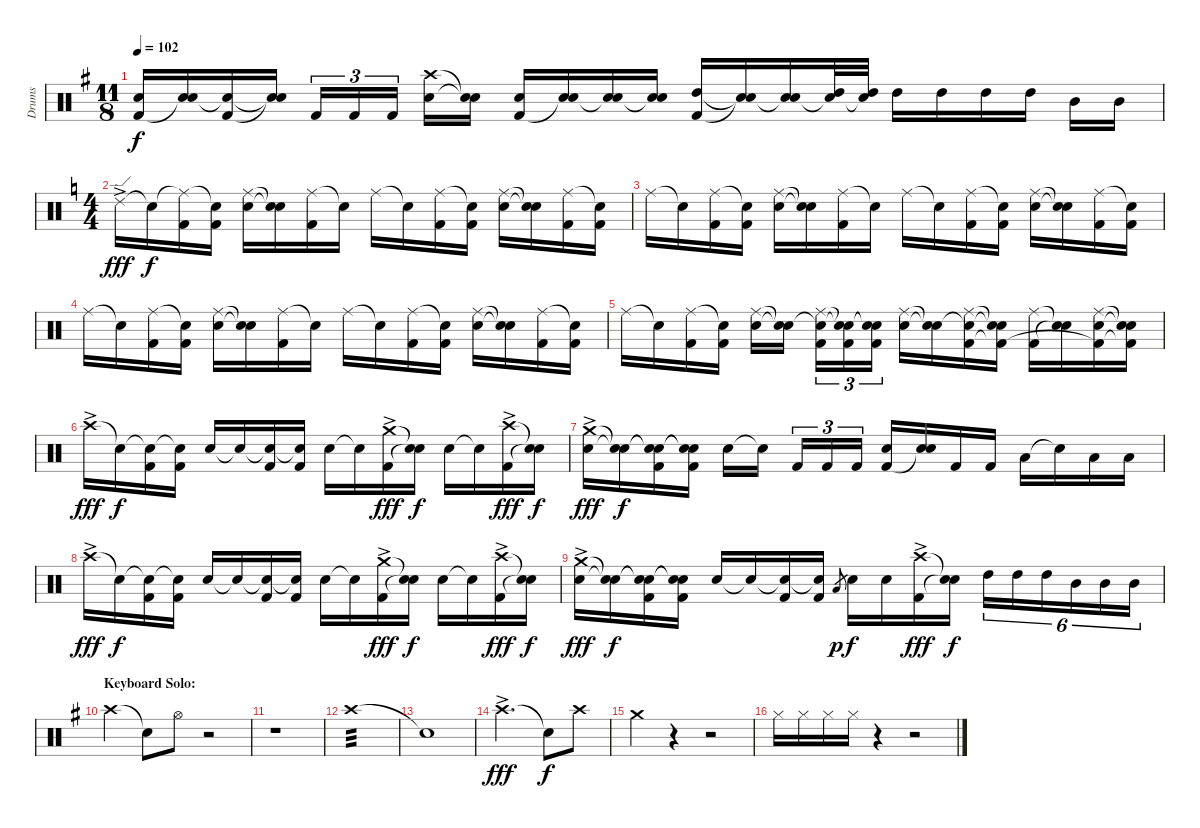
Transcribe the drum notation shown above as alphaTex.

\track ("Drums" "Drums") {instrument percussion}
\staff {score}
\articulation defaults
\ts (11 8)
\tempo 102
\clef neutral
\ks eminor
("Snare (hit) 2" "Kick (hit) 2").16{dy f} ("Snare (hit) 2" "Snare (hit)"{t}).16 ("Snare (hit)"{t} "Kick (hit) 2").16 ("Snare (hit)"{t} "Snare (hit)"{t}).16 "Kick (hit) 2".16{tu (3 2)} "Kick (hit) 2".16{tu (3 2)} "Kick (hit) 2".16{tu (3 2)} ("Crash high (hit)" "Snare (hit) 2").16 ("Snare (hit)"{t} "Snare (hit)"{t}).16 ("Snare (hit) 2" "Kick (hit) 2").16 ("Snare (hit) 2" "Snare (hit)"{t}).16 ("Snare (hit) 2" "Snare (hit)"{t}).16 ("Snare (hit) 2" "Snare (hit)"{t}).16 ("High Tom (hit)" "Kick (hit) 2").16 ("Snare (hit)"{t} "Snare (hit)"{t}).16 ("Snare (hit) 2" "Snare (hit)"{t}).16 ("High Tom (hit)" "Snare (hit)"{t}).32 ("High Tom (hit)" "Snare (hit)"{t}).32 "High Tom (hit)".16 "High Tom (hit)".16 "High Tom (hit)".16 "High Tom (hit)".16 "Mid Tom (hit)".16 "Mid Tom (hit)".16 |
\ts (4 4)
\ks c "Ride (edge) 2"{ac}.16{dy fff} "Snare (hit)"{t}.16{dy f}
("Ride (middle)"{t} "Kick (hit) 2").16 ("Snare (hit)"{t} "Kick (hit) 2").16 ("Ride (middle)" "Snare (hit) 2").16 ("Snare (hit)"{t} "Snare (hit)"{t}).16 ("Ride (middle)" "Kick (hit) 2").16 "Snare (hit)"{t}.16 "Ride (middle)".16 "Snare (hit)"{t}.16 ("Ride (middle)" "Kick (hit) 2").16 ("Snare (hit)"{t} "Kick (hit) 2").16 ("Ride (middle)" "Snare (hit) 2").16 ("Snare (hit)"{t} "Snare (hit)"{t}).16 ("Ride (middle)" "Kick (hit) 2").16 ("Snare (hit)"{t} "Kick (hit) 2").16 |
"Ride (middle)".16 "Snare (hit)"{t}.16 ("Ride (middle)" "Kick (hit) 2").16 ("Snare (hit)"{t} "Kick (hit) 2").16 ("Ride (middle)" "Snare (hit) 2").16 ("Snare (hit)"{t} "Snare (hit)"{t}).16 ("Ride (middle)" "Kick (hit) 2").16 "Snare (hit)"{t}.16 "Ride (middle)".16 "Snare (hit)"{t}.16 ("Ride (middle)" "Kick (hit) 2").16 ("Snare (hit)"{t} "Kick (hit) 2").16 ("Ride (middle)" "Snare (hit) 2").16 ("Snare (hit)"{t} "Snare (hit)"{t}).16 ("Ride (middle)" "Kick (hit) 2").16 ("Snare (hit)"{t} "Kick (hit) 2").16 |
"Ride (middle)".16 "Snare (hit)"{t}.16 ("Ride (middle)" "Kick (hit) 2").16 ("Snare (hit)"{t} "Kick (hit) 2").16 ("Ride (middle)" "Snare (hit) 2").16 ("Snare (hit)"{t} "Snare (hit)"{t}).16 ("Ride (middle)" "Kick (hit) 2").16 "Snare (hit)"{t}.16 "Ride (middle)".16 "Snare (hit)"{t}.16 ("Ride (middle)" "Kick (hit) 2").16 ("Snare (hit)"{t} "Kick (hit) 2").16 ("Ride (middle)" "Snare (hit) 2").16 ("Snare (hit)"{t} "Snare (hit)"{t}).16 ("Ride (middle)" "Kick (hit) 2").16 ("Snare (hit)"{t} "Kick (hit) 2").16 |
"Ride (middle)".16 "Snare (hit)"{t}.16 ("Ride (middle)" "Kick (hit) 2").16 ("Snare (hit)"{t} "Kick (hit) 2").16 ("Ride (middle)" "Snare (hit) 2").16 ("Snare (hit)"{t} "Snare (hit)"{t}).16 ("Ride (middle)" "Snare (hit)"{t} "Kick (hit) 2").16{tu (3 2)} ("Snare (hit)"{t} "Snare (hit)"{t} "Kick (hit) 2").16{tu (3 2)} ("Snare (hit)"{t} "Snare (hit)"{t} "Kick (hit) 2").16{tu (3 2)} ("Ride (middle)" "Snare (hit) 2").16 ("Snare (hit)"{t} "Snare (hit)"{t}).16 ("Ride (middle)" "Snare (hit)"{t} "Kick (hit) 2").16 ("Snare (hit)"{t} "Snare (hit)"{t} "Kick (hit) 2"{t}).16 ("Ride (middle)" "Kick (hit) 2").16 ("Snare (hit)"{t} "Snare (hit)"{t}).16 ("Ride (middle)" "Snare (hit) 2" "Kick (hit) 2"{t}).16 ("Snare (hit)"{t} "Snare (hit)"{t} "Kick (hit) 2"{t}).16 |
"Crash high (hit)"{ac}.16{dy fff} "Snare (hit)"{t}.16{dy f} ("Snare (hit)"{t} "Kick (hit) 2").16 ("Snare (hit)"{t} "Kick (hit) 2").16 "Snare (hit) 2".16 "Snare (hit)"{t}.16 ("Snare (hit)"{t} "Kick (hit) 2").16 ("Snare (hit)"{t} "Kick (hit) 2").16 "Snare (hit) 2".16 "Snare (hit)"{t}.16 ("Crash medium (hit)"{ac} "Kick (hit) 2").16{dy fff} ("Snare (hit)"{t} "Snare (hit)"{t}).16{dy f} "Snare (hit) 2".16 "Snare (hit)"{t}.16 ("Crash high (hit)"{ac} "Kick (hit) 2").16{dy fff} ("Snare (hit)"{t} "Snare (hit)"{t}).16{dy f} |
("Crash medium (hit)"{ac} "Snare (hit) 2").16{dy fff} ("Snare (hit)"{t} "Snare (hit)"{t}).16{dy f} ("Snare (hit)"{t} "Snare (hit)"{t} "Kick (hit) 2").16 ("Snare (hit)"{t} "Snare (hit)"{t} "Kick (hit) 2").16 "Snare (hit) 2".16 "Snare (hit)"{t}.16 "Kick (hit) 2".16{tu (3 2)} "Kick (hit) 2".16{tu (3 2)} "Kick (hit) 2".16{tu (3 2)} ("Snare (hit) 2" "Kick (hit) 2").16 ("Snare (hit) 2" "Snare (hit)"{t}).16 "Kick (hit) 2".16 "Kick (hit) 2".16 "Low Tom (hit)".16 "Snare (hit)"{t}.16 "Low Floor Tom (hit)".16 "Low Floor Tom (hit)".16 |
"Crash high (hit)"{ac}.16{dy fff} "Snare (hit)"{t}.16{dy f} ("Snare (hit)"{t} "Kick (hit) 2").16 ("Snare (hit)"{t} "Kick (hit) 2").16 "Snare (hit) 2".16 "Snare (hit)"{t}.16 ("Snare (hit)"{t} "Kick (hit) 2").16 ("Snare (hit)"{t} "Kick (hit) 2").16 "Snare (hit) 2".16 "Snare (hit)"{t}.16 ("Crash medium (hit)"{ac} "Kick (hit) 2").16{dy fff} ("Snare (hit)"{t} "Snare (hit)"{t}).16{dy f} "Snare (hit) 2".16 "Snare (hit)"{t}.16 ("Crash high (hit)"{ac} "Kick (hit) 2").16{dy fff} ("Snare (hit)"{t} "Snare (hit)"{t}).16{dy f} |
("Crash medium (hit)"{ac} "Snare (hit) 2").16{dy fff} ("Snare (hit)"{t} "Snare (hit)"{t}).16{dy f} ("Snare (hit)"{t} "Snare (hit)"{t} "Kick (hit) 2").16 ("Snare (hit)"{t} "Snare (hit)"{t} "Kick (hit) 2").16 "Snare (hit) 2".16 "Snare (hit)"{t}.16 ("Snare (hit)"{t} "Kick (hit) 2").16 ("Snare (hit)"{t} "Kick (hit) 2").16 "Low Tom (hit)"{h}.8{gr dy p} "Snare (hit) 2".16{dy f} "Snare (hit) 2".16 ("Crash high (hit)"{ac} "Kick (hit) 2").16{dy fff} ("Snare (hit)"{t} "Snare (hit)"{t}).16{dy f} "High Tom (hit)".16{tu (6 4)} "High Tom (hit)".16{tu (6 4)} "High Tom (hit)".16{tu (6 4)} "Mid Tom (hit)".16{tu (6 4)} "Mid Tom (hit)".16{tu (6 4)} "Mid Tom (hit)".16{tu (6 4)} |
\section ("" "Keyboard Solo:")
\ks eminor "Crash high (hit)".4 "Snare (hit)"{t}.8 "Hi-Hat (open)".8
r.2 |
r.1{volume 0} |
"Crash high (hit)".1{tp 3 volume 8} |
"Snare (hit)"{t}.1 |
"Crash high (hit)"{ac}.2{d dy fff volume 11} "Snare (hit)"{t}.8{dy f} "Crash high (hit)".8 |
"Crash medium (hit)".4 r.4 r.2 |
"Hi-Hat (closed)".16 "Hi-Hat (closed)".16 "Hi-Hat (closed)".16 "Hi-Hat (closed)".16 r.4 r.2
